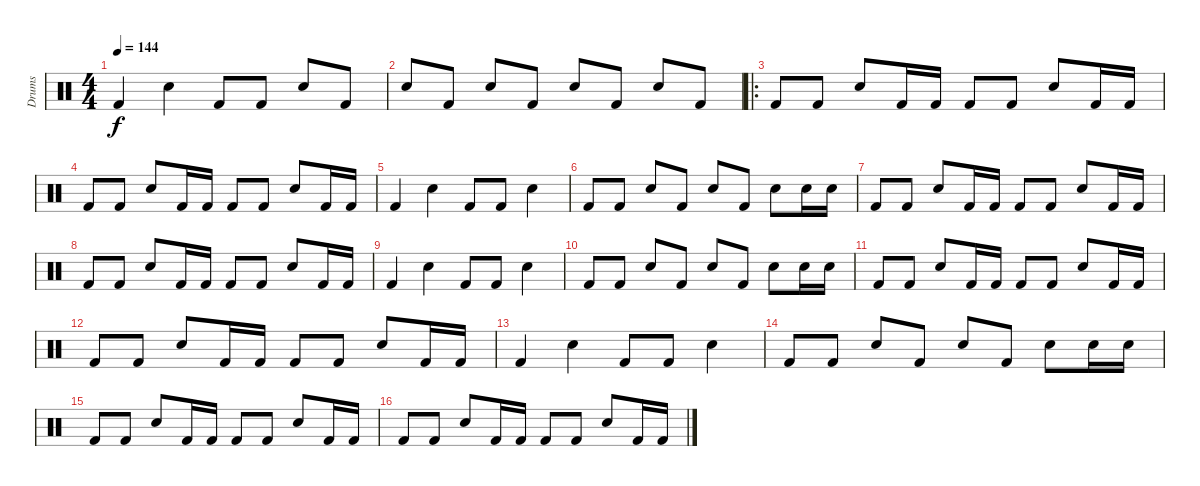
\track ("Drums" "Drums") {instrument percussion}
\staff {score}
\articulation defaults
\ts (4 4)
\tempo 144
\clef neutral
\ks c "Kick (hit) 2".4{dy f} "Electric Snare (hit)".4 "Kick (hit) 2".8 "Kick (hit) 2".8 "Electric Snare (hit)".8 "Kick (hit) 2".8
|
"Electric Snare (hit)".8 "Kick (hit) 2".8 "Electric Snare (hit)".8 "Kick (hit) 2".8 "Electric Snare (hit)".8 "Kick (hit) 2".8 "Electric Snare (hit)".8 "Kick (hit) 2".8 |
\ro "Kick (hit) 2".8 "Kick (hit) 2".8 "Electric Snare (hit)".8 "Kick (hit) 2".16 "Kick (hit) 2".16 "Kick (hit) 2".8 "Kick (hit) 2".8 "Electric Snare (hit)".8 "Kick (hit) 2".16 "Kick (hit) 2".16
|
"Kick (hit) 2".8 "Kick (hit) 2".8 "Electric Snare (hit)".8 "Kick (hit) 2".16 "Kick (hit) 2".16 "Kick (hit) 2".8 "Kick (hit) 2".8 "Electric Snare (hit)".8 "Kick (hit) 2".16 "Kick (hit) 2".16 |
"Kick (hit) 2".4 "Electric Snare (hit)".4 "Kick (hit) 2".8 "Kick (hit) 2".8 "Electric Snare (hit)".4 |
"Kick (hit) 2".8 "Kick (hit) 2".8 "Electric Snare (hit)".8 "Kick (hit) 2".8 "Electric Snare (hit)".8 "Kick (hit) 2".8 "Electric Snare (hit)".8 "Electric Snare (hit)".16 "Electric Snare (hit)".16 |
"Kick (hit) 2".8 "Kick (hit) 2".8 "Electric Snare (hit)".8 "Kick (hit) 2".16 "Kick (hit) 2".16 "Kick (hit) 2".8 "Kick (hit) 2".8 "Electric Snare (hit)".8 "Kick (hit) 2".16 "Kick (hit) 2".16 |
"Kick (hit) 2".8 "Kick (hit) 2".8 "Electric Snare (hit)".8 "Kick (hit) 2".16 "Kick (hit) 2".16 "Kick (hit) 2".8 "Kick (hit) 2".8 "Electric Snare (hit)".8 "Kick (hit) 2".16 "Kick (hit) 2".16 |
"Kick (hit) 2".4 "Electric Snare (hit)".4 "Kick (hit) 2".8 "Kick (hit) 2".8 "Electric Snare (hit)".4 |
"Kick (hit) 2".8 "Kick (hit) 2".8 "Electric Snare (hit)".8 "Kick (hit) 2".8 "Electric Snare (hit)".8 "Kick (hit) 2".8 "Electric Snare (hit)".8 "Electric Snare (hit)".16 "Electric Snare (hit)".16 |
"Kick (hit) 2".8 "Kick (hit) 2".8 "Electric Snare (hit)".8 "Kick (hit) 2".16 "Kick (hit) 2".16 "Kick (hit) 2".8 "Kick (hit) 2".8 "Electric Snare (hit)".8 "Kick (hit) 2".16 "Kick (hit) 2".16 |
"Kick (hit) 2".8 "Kick (hit) 2".8 "Electric Snare (hit)".8 "Kick (hit) 2".16 "Kick (hit) 2".16 "Kick (hit) 2".8 "Kick (hit) 2".8 "Electric Snare (hit)".8 "Kick (hit) 2".16 "Kick (hit) 2".16 |
"Kick (hit) 2".4 "Electric Snare (hit)".4 "Kick (hit) 2".8 "Kick (hit) 2".8 "Electric Snare (hit)".4 |
"Kick (hit) 2".8 "Kick (hit) 2".8 "Electric Snare (hit)".8 "Kick (hit) 2".8 "Electric Snare (hit)".8 "Kick (hit) 2".8 "Electric Snare (hit)".8 "Electric Snare (hit)".16 "Electric Snare (hit)".16 |
"Kick (hit) 2".8 "Kick (hit) 2".8 "Electric Snare (hit)".8 "Kick (hit) 2".16 "Kick (hit) 2".16 "Kick (hit) 2".8 "Kick (hit) 2".8 "Electric Snare (hit)".8 "Kick (hit) 2".16 "Kick (hit) 2".16 |
"Kick (hit) 2".8 "Kick (hit) 2".8 "Electric Snare (hit)".8 "Kick (hit) 2".16 "Kick (hit) 2".16 "Kick (hit) 2".8 "Kick (hit) 2".8 "Electric Snare (hit)".8 "Kick (hit) 2".16 "Kick (hit) 2".16
